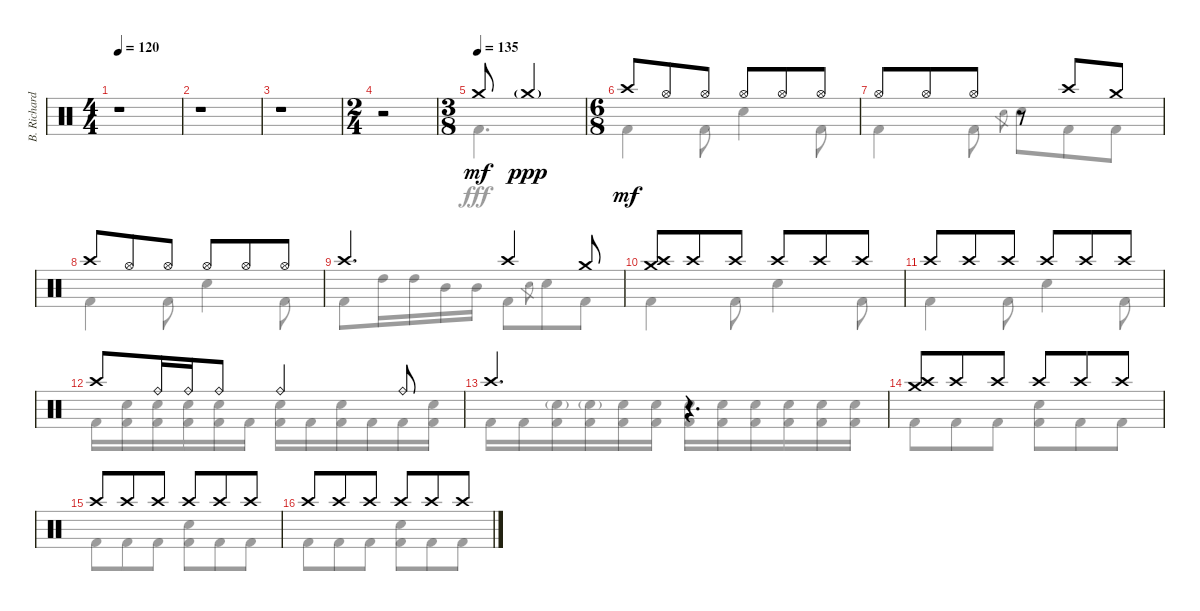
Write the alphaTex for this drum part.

\track ("B. Richardson Drums" "B. Richard") {instrument percussion}
\staff {score}
\articulation defaults
\voice
\ts (4 4)
\tempo 120
\clef neutral
\ks c
r.1{dy mf} |
r.1 |
r.1 |
\ts (2 4)
r.2 |
\ts (3 8)
\tempo (135)
"Crash medium (hit)".8 "Crash medium (hit)"{g}.4{dy ppp} |
\ts (6 8)
"Crash high (hit)".8{dy mf} "Hi-Hat (open)".8 "Hi-Hat (open)".8 "Hi-Hat (open)".8 "Hi-Hat (open)".8 "Hi-Hat (open)".8 |
"Hi-Hat (open)".8 "Hi-Hat (open)".8 "Hi-Hat (open)".8 r.8 "Crash high (hit)".8 "Crash medium (hit)".8 |
"Crash high (hit)".8 "Hi-Hat (open)".8 "Hi-Hat (open)".8 "Hi-Hat (open)".8 "Hi-Hat (open)".8 "Hi-Hat (open)".8 |
"Crash high (hit)".4{d} "Crash high (hit)".4 "Crash medium (hit)".8 |
("Crash high (hit)" "Crash medium (hit)").8 "Crash high (hit)".8 "Crash high (hit)".8 "Crash high (hit)".8 "Crash high (hit)".8 "Crash high (hit)".8 |
"Crash high (hit)".8 "Crash high (hit)".8 "Crash high (hit)".8 "Crash high (hit)".8 "Crash high (hit)".8 "Crash high (hit)".8 |
"Crash high (hit)".8 "Ride (bell)".16 "Ride (bell)".16 "Ride (bell)".8 "Ride (bell)".4 "Ride (bell)".8 |
"Crash high (hit)".4{d} r.4{d} |
("Crash high (hit)" "Crash medium (hit)").8 "Crash high (hit)".8 "Crash high (hit)".8 "Crash high (hit)".8 "Crash high (hit)".8 "Crash high (hit)".8 |
"Crash high (hit)".8 "Crash high (hit)".8 "Crash high (hit)".8 "Crash high (hit)".8 "Crash high (hit)".8 "Crash high (hit)".8 |
"Crash high (hit)".8 "Crash high (hit)".8 "Crash high (hit)".8 "Crash high (hit)".8 "Crash high (hit)".8 "Crash high (hit)".8
\voice
\clef neutral
\ottava regular
\simile none
\ks c
r.1{dy fff} |
r.1 |
r.1 |
r.2 |
"Kick (hit) 2".4{d} |
"Kick (hit) 2".4 "Kick (hit) 2".8 "Electric Snare (hit)".4 "Kick (hit) 2".8 |
"Kick (hit) 2".4 "Kick (hit) 2".8 "Electric Snare (hit)".8{gr} "Electric Snare (hit)".8 "Kick (hit) 2".8 "Kick (hit) 2".8 |
"Kick (hit) 2".4 "Kick (hit) 2".8 "Electric Snare (hit)".4 "Kick (hit) 2".8 |
"Kick (hit) 2".8 "High Tom (hit)".16 "High Tom (hit)".16 "Mid Tom (hit)".16 "Mid Tom (hit)".16 "Kick (hit) 2".8 "Electric Snare (hit)".8{gr} "Electric Snare (hit)".8 "Kick (hit) 2".8 |
"Kick (hit) 2".4 "Kick (hit) 2".8 "Electric Snare (hit)".4 "Kick (hit) 2".8 |
"Kick (hit) 2".4 "Kick (hit) 2".8 "Electric Snare (hit)".4 "Kick (hit) 2".8 |
"Kick (hit) 2".16 ("Electric Snare (hit)" "Kick (hit) 2").16 ("Electric Snare (hit)" "Kick (hit) 2").16 ("Electric Snare (hit)" "Kick (hit) 2").16 ("Electric Snare (hit)" "Kick (hit) 2").16 "Kick (hit) 2".16 ("Electric Snare (hit)" "Kick (hit) 2").16 "Kick (hit) 2".16 ("Electric Snare (hit)" "Kick (hit) 2").16 "Kick (hit) 2".16 "Kick (hit) 2".16 ("Electric Snare (hit)" "Kick (hit) 2").16 |
"Kick (hit) 2".16 "Kick (hit) 2".16 ("Electric Snare (hit)"{g} "Kick (hit) 2").16 ("Electric Snare (hit)"{g} "Kick (hit) 2").16 ("Electric Snare (hit)" "Kick (hit) 2").16 ("Electric Snare (hit)" "Kick (hit) 2").16 ("Electric Snare (hit)" "Kick (hit) 2").16 ("Electric Snare (hit)" "Kick (hit) 2").16 ("Electric Snare (hit)" "Kick (hit) 2").16 ("Electric Snare (hit)" "Kick (hit) 2").16 ("Electric Snare (hit)" "Kick (hit) 2").16 ("Electric Snare (hit)" "Kick (hit) 2").16 |
"Kick (hit) 2".8 "Kick (hit) 2".8 "Kick (hit) 2".8 ("Electric Snare (hit)" "Kick (hit) 2").8 "Kick (hit) 2".8 "Kick (hit) 2".8 |
"Kick (hit) 2".8 "Kick (hit) 2".8 "Kick (hit) 2".8 ("Electric Snare (hit)" "Kick (hit) 2").8 "Kick (hit) 2".8 "Kick (hit) 2".8 |
"Kick (hit) 2".8 "Kick (hit) 2".8 "Kick (hit) 2".8 ("Electric Snare (hit)" "Kick (hit) 2").8 "Kick (hit) 2".8 "Kick (hit) 2".8
